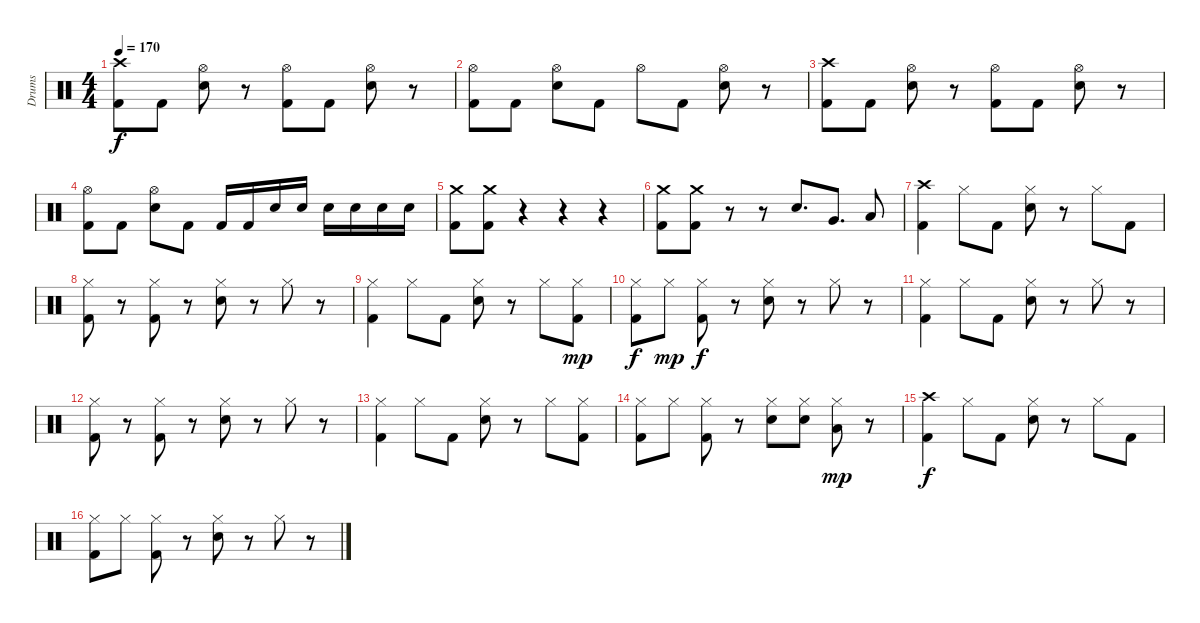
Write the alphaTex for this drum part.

\track ("Drums" "Drums") {instrument percussion}
\staff {score}
\articulation defaults
\ts (4 4)
\tempo 170
\clef neutral
\ks c
("Crash high (hit)" "Kick (hit) 2").8{dy f} "Kick (hit) 2".8 ("Hi-Hat (open)" "Snare (hit) 2").8 r.8 ("Hi-Hat (open)" "Kick (hit) 2").8 "Kick (hit) 2".8 ("Hi-Hat (open)" "Snare (hit) 2").8 r.8 |
("Hi-Hat (open)" "Kick (hit) 2").8 "Kick (hit) 2".8 ("Hi-Hat (open)" "Snare (hit) 2").8 "Kick (hit) 2".8 "Hi-Hat (open)".8 "Kick (hit) 2".8 ("Hi-Hat (open)" "Snare (hit) 2").8 r.8 |
("Crash high (hit)" "Kick (hit) 2").8 "Kick (hit) 2".8 ("Hi-Hat (open)" "Snare (hit) 2").8 r.8 ("Hi-Hat (open)" "Kick (hit) 2").8 "Kick (hit) 2".8 ("Hi-Hat (open)" "Snare (hit) 2").8 r.8 |
("Hi-Hat (open)" "Kick (hit) 2").8 "Kick (hit) 2".8 ("Hi-Hat (open)" "Snare (hit) 2").8 "Kick (hit) 2".8 "Kick (hit) 2".16 "Kick (hit) 2".16 "Snare (hit) 2".16 "Snare (hit) 2".16 "Snare (hit) 2".16 "Snare (hit) 2".16 "Snare (hit) 2".16 "Snare (hit) 2".16 |
("Crash medium (hit)" "Kick (hit) 2").8 ("Crash medium (hit)" "Kick (hit) 2").8 r.4 r.4 r.4 |
("Crash medium (hit)" "Kick (hit) 2").8 ("Crash medium (hit)" "Kick (hit) 2").8 r.8 r.8 "Snare (hit) 2".8{d} "Very Low Tom (hit)".8{d} "Low Floor Tom (hit)".8 |
("Crash high (hit)" "Kick (hit) 2").4 "Hi-Hat (closed)".8 "Kick (hit) 2".8 ("Hi-Hat (closed)" "Snare (hit) 2").8 r.8 "Hi-Hat (closed)".8 "Kick (hit) 2".8 |
("Hi-Hat (closed)" "Kick (hit) 2").8 r.8 ("Hi-Hat (closed)" "Kick (hit) 2").8 r.8 ("Hi-Hat (closed)" "Snare (hit) 2").8 r.8 "Hi-Hat (closed)".8 r.8 |
("Hi-Hat (closed)" "Kick (hit) 2").4 "Hi-Hat (closed)".8 "Kick (hit) 2".8 ("Hi-Hat (closed)" "Snare (hit) 2").8 r.8 "Hi-Hat (closed)".8 ("Hi-Hat (closed)" "Kick (hit) 2").8{dy mp} |
("Hi-Hat (closed)" "Kick (hit) 2").8{dy f} "Hi-Hat (closed)".8{dy mp} ("Hi-Hat (closed)" "Kick (hit) 2").8{dy f} r.8 ("Hi-Hat (closed)" "Snare (hit) 2").8 r.8 "Hi-Hat (closed)".8 r.8 |
("Hi-Hat (closed)" "Kick (hit) 2").4 "Hi-Hat (closed)".8 "Kick (hit) 2".8 ("Hi-Hat (closed)" "Snare (hit) 2").8 r.8 "Hi-Hat (closed)".8 r.8 |
("Hi-Hat (closed)" "Kick (hit) 2").8 r.8 ("Hi-Hat (closed)" "Kick (hit) 2").8 r.8 ("Hi-Hat (closed)" "Snare (hit) 2").8 r.8 "Hi-Hat (closed)".8 r.8 |
("Hi-Hat (closed)" "Kick (hit) 2").4 "Hi-Hat (closed)".8 "Kick (hit) 2".8 ("Hi-Hat (closed)" "Snare (hit) 2").8 r.8 "Hi-Hat (closed)".8 ("Hi-Hat (closed)" "Kick (hit) 2").8 |
("Hi-Hat (closed)" "Kick (hit) 2").8 "Hi-Hat (closed)".8 ("Hi-Hat (closed)" "Kick (hit) 2").8 r.8 ("Hi-Hat (closed)" "Snare (hit) 2").8 ("Hi-Hat (closed)" "Snare (hit) 2").8 ("Hi-Hat (closed)" "Low Floor Tom (hit)").8{dy mp} r.8 |
("Crash high (hit)" "Kick (hit) 2").4{dy f} "Hi-Hat (closed)".8 "Kick (hit) 2".8 ("Hi-Hat (closed)" "Snare (hit) 2").8 r.8 "Hi-Hat (closed)".8 "Kick (hit) 2".8 |
("Hi-Hat (closed)" "Kick (hit) 2").8 "Hi-Hat (closed)".8 ("Hi-Hat (closed)" "Kick (hit) 2").8 r.8 ("Hi-Hat (closed)" "Snare (hit) 2").8 r.8 "Hi-Hat (closed)".8 r.8
